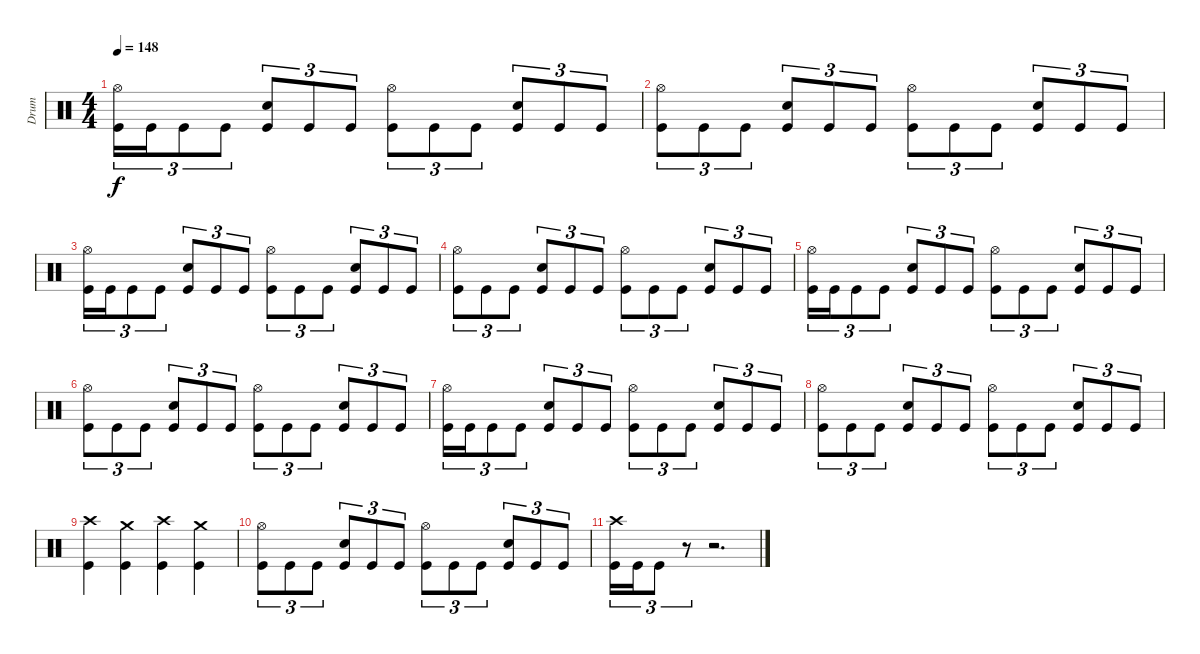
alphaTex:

\track ("Drum" "Drum") {instrument percussion}
\staff {score}
\articulation defaults
\ts (4 4)
\tempo 148
\clef neutral
\ks c
("Hi-Hat (open)" "Kick (hit)").16{tu (3 2) dy f} "Kick (hit)".16{tu (3 2)} "Kick (hit)".8{tu (3 2)} "Kick (hit)".8{tu (3 2)} ("Snare (hit) 2" "Kick (hit)").8{tu (3 2)} "Kick (hit)".8{tu (3 2)} "Kick (hit)".8{tu (3 2)} ("Hi-Hat (open)" "Kick (hit)").8{tu (3 2)} "Kick (hit)".8{tu (3 2)} "Kick (hit)".8{tu (3 2)} ("Snare (hit) 2" "Kick (hit)").8{tu (3 2)} "Kick (hit)".8{tu (3 2)} "Kick (hit)".8{tu (3 2)} |
("Hi-Hat (open)" "Kick (hit)").8{tu (3 2)} "Kick (hit)".8{tu (3 2)} "Kick (hit)".8{tu (3 2)} ("Snare (hit) 2" "Kick (hit)").8{tu (3 2)} "Kick (hit)".8{tu (3 2)} "Kick (hit)".8{tu (3 2)} ("Hi-Hat (open)" "Kick (hit)").8{tu (3 2)} "Kick (hit)".8{tu (3 2)} "Kick (hit)".8{tu (3 2)} ("Snare (hit) 2" "Kick (hit)").8{tu (3 2)} "Kick (hit)".8{tu (3 2)} "Kick (hit)".8{tu (3 2)} |
("Hi-Hat (open)" "Kick (hit)").16{tu (3 2)} "Kick (hit)".16{tu (3 2)} "Kick (hit)".8{tu (3 2)} "Kick (hit)".8{tu (3 2)} ("Snare (hit) 2" "Kick (hit)").8{tu (3 2)} "Kick (hit)".8{tu (3 2)} "Kick (hit)".8{tu (3 2)} ("Hi-Hat (open)" "Kick (hit)").8{tu (3 2)} "Kick (hit)".8{tu (3 2)} "Kick (hit)".8{tu (3 2)} ("Snare (hit) 2" "Kick (hit)").8{tu (3 2)} "Kick (hit)".8{tu (3 2)} "Kick (hit)".8{tu (3 2)} |
("Hi-Hat (open)" "Kick (hit)").8{tu (3 2)} "Kick (hit)".8{tu (3 2)} "Kick (hit)".8{tu (3 2)} ("Snare (hit) 2" "Kick (hit)").8{tu (3 2)} "Kick (hit)".8{tu (3 2)} "Kick (hit)".8{tu (3 2)} ("Hi-Hat (open)" "Kick (hit)").8{tu (3 2)} "Kick (hit)".8{tu (3 2)} "Kick (hit)".8{tu (3 2)} ("Snare (hit) 2" "Kick (hit)").8{tu (3 2)} "Kick (hit)".8{tu (3 2)} "Kick (hit)".8{tu (3 2)} |
("Hi-Hat (open)" "Kick (hit)").16{tu (3 2)} "Kick (hit)".16{tu (3 2)} "Kick (hit)".8{tu (3 2)} "Kick (hit)".8{tu (3 2)} ("Snare (hit) 2" "Kick (hit)").8{tu (3 2)} "Kick (hit)".8{tu (3 2)} "Kick (hit)".8{tu (3 2)} ("Hi-Hat (open)" "Kick (hit)").8{tu (3 2)} "Kick (hit)".8{tu (3 2)} "Kick (hit)".8{tu (3 2)} ("Snare (hit) 2" "Kick (hit)").8{tu (3 2)} "Kick (hit)".8{tu (3 2)} "Kick (hit)".8{tu (3 2)} |
("Hi-Hat (open)" "Kick (hit)").8{tu (3 2)} "Kick (hit)".8{tu (3 2)} "Kick (hit)".8{tu (3 2)} ("Snare (hit) 2" "Kick (hit)").8{tu (3 2)} "Kick (hit)".8{tu (3 2)} "Kick (hit)".8{tu (3 2)} ("Hi-Hat (open)" "Kick (hit)").8{tu (3 2)} "Kick (hit)".8{tu (3 2)} "Kick (hit)".8{tu (3 2)} ("Snare (hit) 2" "Kick (hit)").8{tu (3 2)} "Kick (hit)".8{tu (3 2)} "Kick (hit)".8{tu (3 2)} |
("Hi-Hat (open)" "Kick (hit)").16{tu (3 2)} "Kick (hit)".16{tu (3 2)} "Kick (hit)".8{tu (3 2)} "Kick (hit)".8{tu (3 2)} ("Snare (hit) 2" "Kick (hit)").8{tu (3 2)} "Kick (hit)".8{tu (3 2)} "Kick (hit)".8{tu (3 2)} ("Hi-Hat (open)" "Kick (hit)").8{tu (3 2)} "Kick (hit)".8{tu (3 2)} "Kick (hit)".8{tu (3 2)} ("Snare (hit) 2" "Kick (hit)").8{tu (3 2)} "Kick (hit)".8{tu (3 2)} "Kick (hit)".8{tu (3 2)} |
("Hi-Hat (open)" "Kick (hit)").8{tu (3 2)} "Kick (hit)".8{tu (3 2)} "Kick (hit)".8{tu (3 2)} ("Snare (hit) 2" "Kick (hit)").8{tu (3 2)} "Kick (hit)".8{tu (3 2)} "Kick (hit)".8{tu (3 2)} ("Hi-Hat (open)" "Kick (hit)").8{tu (3 2)} "Kick (hit)".8{tu (3 2)} "Kick (hit)".8{tu (3 2)} ("Snare (hit) 2" "Kick (hit)").8{tu (3 2)} "Kick (hit)".8{tu (3 2)} "Kick (hit)".8{tu (3 2)} |
("Crash high (hit)" "Kick (hit)").4 ("Crash medium (hit)" "Kick (hit)").4 ("Crash high (hit)" "Kick (hit)").4 ("Crash medium (hit)" "Kick (hit)").4 |
("Hi-Hat (open)" "Kick (hit)").8{tu (3 2)} "Kick (hit)".8{tu (3 2)} "Kick (hit)".8{tu (3 2)} ("Snare (hit) 2" "Kick (hit)").8{tu (3 2)} "Kick (hit)".8{tu (3 2)} "Kick (hit)".8{tu (3 2)} ("Hi-Hat (open)" "Kick (hit)").8{tu (3 2)} "Kick (hit)".8{tu (3 2)} "Kick (hit)".8{tu (3 2)} ("Snare (hit) 2" "Kick (hit)").8{tu (3 2)} "Kick (hit)".8{tu (3 2)} "Kick (hit)".8{tu (3 2)} |
("Crash high (hit)" "Kick (hit)").16{tu (3 2)} "Kick (hit)".16{tu (3 2)} "Kick (hit)".8{tu (3 2)} r.8{tu (3 2)} r.2{d}
